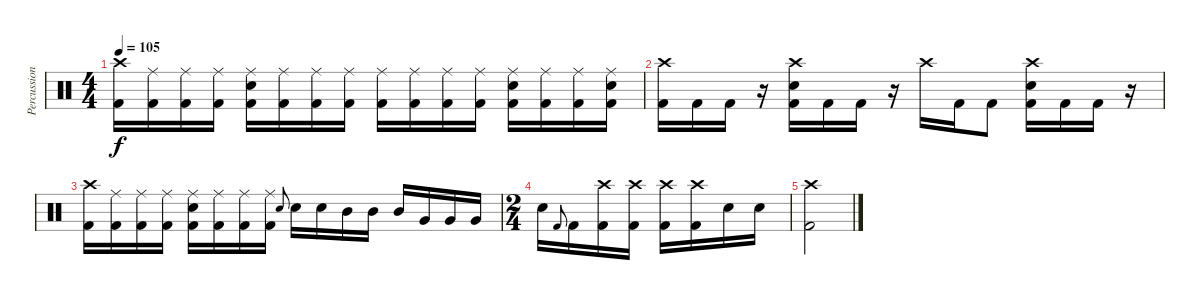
\track ("Percussion" "Percussion") {instrument percussion}
\staff {score}
\articulation defaults
\ts (4 4)
\tempo 105
\clef neutral
\ks c
("Crash high (hit)" "Kick (hit) 2").16{dy f} ("Ride (middle)" "Kick (hit) 2").16 ("Ride (middle)" "Kick (hit) 2").16 ("Ride (middle)" "Kick (hit) 2").16 ("Ride (middle)" "Snare (hit) 2" "Kick (hit) 2").16 ("Ride (middle)" "Kick (hit) 2").16 ("Ride (middle)" "Kick (hit) 2").16 ("Ride (middle)" "Kick (hit) 2").16 ("Ride (middle)" "Kick (hit) 2").16 ("Ride (middle)" "Kick (hit) 2").16 ("Ride (middle)" "Kick (hit) 2").16 ("Ride (middle)" "Kick (hit) 2").16 ("Ride (middle)" "Snare (hit) 2" "Kick (hit) 2").16 ("Ride (middle)" "Kick (hit) 2").16 ("Ride (middle)" "Kick (hit) 2").16 ("Ride (middle)" "Snare (hit) 2" "Kick (hit) 2").16 |
("Crash high (hit)" "Kick (hit) 2").16 "Kick (hit) 2".16 "Kick (hit) 2".16 r.16 ("Crash high (hit)" "Snare (hit) 2" "Kick (hit) 2").16 "Kick (hit) 2".16 "Kick (hit) 2".16 r.16 "Crash high (hit)".16 "Kick (hit) 2".16 "Kick (hit) 2".8 ("Crash high (hit)" "Snare (hit) 2" "Kick (hit) 2").16 "Kick (hit) 2".16 "Kick (hit) 2".16 r.16 |
("Crash high (hit)" "Kick (hit) 2").16 ("Ride (middle)" "Kick (hit) 2").16 ("Ride (middle)" "Kick (hit) 2").16 ("Ride (middle)" "Kick (hit) 2").16 ("Ride (middle)" "Snare (hit) 2" "Kick (hit) 2").16 ("Ride (middle)" "Kick (hit) 2").16 ("Ride (middle)" "Kick (hit) 2").16 ("Ride (middle)" "Kick (hit) 2").16 "Snare (hit) 2".8{gr onbeat} "Snare (hit) 2".16 "Snare (hit) 2".16 "Mid Tom (hit)".16 "Mid Tom (hit)".16 "Mid Tom (hit)".16 "Very Low Tom (hit)".16 "Very Low Tom (hit)".16 "Very Low Tom (hit)".16 |
\ts (2 4)
"Snare (hit) 2".16 "Kick (hit) 2".8{gr onbeat} "Kick (hit) 2".16 ("Crash high (hit)" "Kick (hit) 2").16 ("Crash high (hit)" "Kick (hit) 2").16 ("Crash high (hit)" "Kick (hit) 2").16 ("Crash high (hit)" "Kick (hit) 2").16 "Snare (hit) 2".16 "Snare (hit) 2".16 |
("Crash high (hit)" "Kick (hit) 2").2
